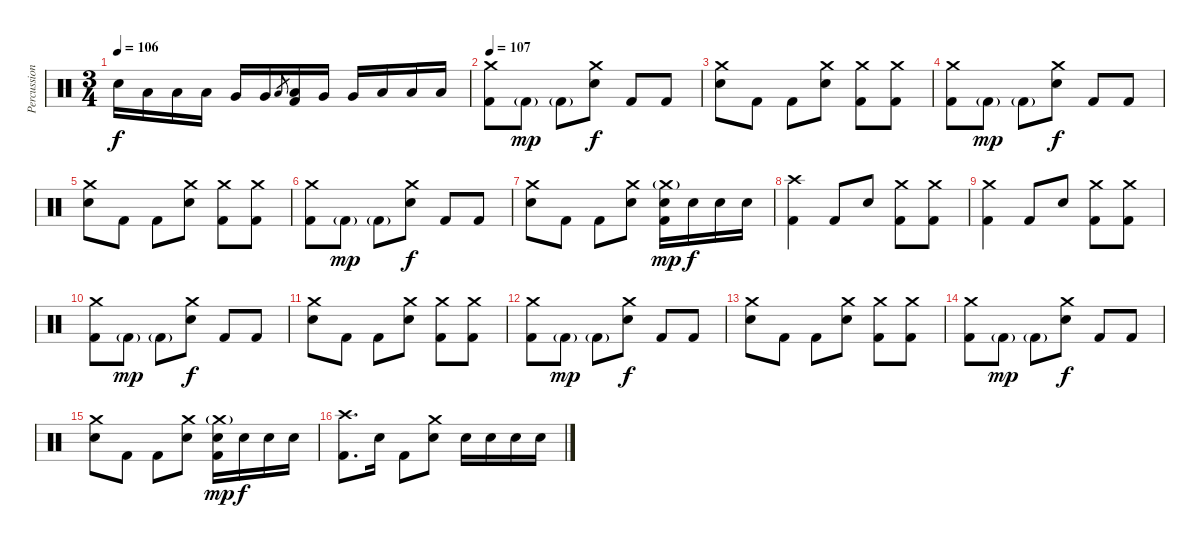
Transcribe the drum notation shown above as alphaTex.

\track ("Percussions" "Percussion") {instrument percussion}
\staff {score}
\articulation defaults
\ts (3 4)
\tempo 106
\clef neutral
\ks c "Snare (hit) 2".16{dy f} "Low Tom (hit)".16 "Low Tom (hit)".16 "Low Tom (hit)".16 "Very Low Tom (hit)".16 "Very Low Tom (hit)".16 "Low Tom (hit)".8{gr}
("Low Tom (hit)" "Kick (hit) 2").16 "Very Low Tom (hit)".16 "Very Low Tom (hit)".16 "Low Floor Tom (hit)".16 "Low Floor Tom (hit)".16 "Low Floor Tom (hit)".16 |
\tempo 107
("Crash medium (hit)" "Kick (hit) 2").8 "Kick (hit) 2"{g}.8{dy mp} "Kick (hit) 2"{g}.8 ("Crash medium (hit)" "Snare (hit) 2").8{dy f} "Kick (hit) 2".8 "Kick (hit) 2".8 |
("Crash medium (hit)" "Snare (hit) 2").8 "Kick (hit) 2".8 "Kick (hit) 2".8 ("Crash medium (hit)" "Snare (hit) 2").8 ("Crash medium (hit)" "Kick (hit) 2").8 ("Crash medium (hit)" "Kick (hit) 2").8 |
("Crash medium (hit)" "Kick (hit) 2").8 "Kick (hit) 2"{g}.8{dy mp} "Kick (hit) 2"{g}.8 ("Crash medium (hit)" "Snare (hit) 2").8{dy f} "Kick (hit) 2".8 "Kick (hit) 2".8 |
("Crash medium (hit)" "Snare (hit) 2").8 "Kick (hit) 2".8 "Kick (hit) 2".8 ("Crash medium (hit)" "Snare (hit) 2").8 ("Crash medium (hit)" "Kick (hit) 2").8 ("Crash medium (hit)" "Kick (hit) 2").8 |
("Crash medium (hit)" "Kick (hit) 2").8 "Kick (hit) 2"{g}.8{dy mp} "Kick (hit) 2"{g}.8 ("Crash medium (hit)" "Snare (hit) 2").8{dy f} "Kick (hit) 2".8 "Kick (hit) 2".8 |
("Crash medium (hit)" "Snare (hit) 2").8 "Kick (hit) 2".8 "Kick (hit) 2".8 ("Crash medium (hit)" "Snare (hit) 2").8 ("Crash medium (hit)"{g} "Snare (hit) 2" "Kick (hit) 2").16{dy mp} "Snare (hit) 2".16{dy f} "Snare (hit) 2".16 "Snare (hit) 2".16 |
("Crash high (hit)" "Kick (hit) 2").4 "Kick (hit) 2".8 "Snare (hit) 2".8 ("Crash medium (hit)" "Kick (hit) 2").8 ("Crash medium (hit)" "Kick (hit) 2").8 |
("Crash medium (hit)" "Kick (hit) 2").4 "Kick (hit) 2".8 "Snare (hit) 2".8 ("Crash medium (hit)" "Kick (hit) 2").8 ("Crash medium (hit)" "Kick (hit) 2").8 |
("Crash medium (hit)" "Kick (hit) 2").8 "Kick (hit) 2"{g}.8{dy mp} "Kick (hit) 2"{g}.8 ("Crash medium (hit)" "Snare (hit) 2").8{dy f} "Kick (hit) 2".8 "Kick (hit) 2".8 |
("Crash medium (hit)" "Snare (hit) 2").8 "Kick (hit) 2".8 "Kick (hit) 2".8 ("Crash medium (hit)" "Snare (hit) 2").8 ("Crash medium (hit)" "Kick (hit) 2").8 ("Crash medium (hit)" "Kick (hit) 2").8 |
("Crash medium (hit)" "Kick (hit) 2").8 "Kick (hit) 2"{g}.8{dy mp} "Kick (hit) 2"{g}.8 ("Crash medium (hit)" "Snare (hit) 2").8{dy f} "Kick (hit) 2".8 "Kick (hit) 2".8 |
("Crash medium (hit)" "Snare (hit) 2").8 "Kick (hit) 2".8 "Kick (hit) 2".8 ("Crash medium (hit)" "Snare (hit) 2").8 ("Crash medium (hit)" "Kick (hit) 2").8 ("Crash medium (hit)" "Kick (hit) 2").8 |
("Crash medium (hit)" "Kick (hit) 2").8 "Kick (hit) 2"{g}.8{dy mp} "Kick (hit) 2"{g}.8 ("Crash medium (hit)" "Snare (hit) 2").8{dy f} "Kick (hit) 2".8 "Kick (hit) 2".8 |
("Crash medium (hit)" "Snare (hit) 2").8 "Kick (hit) 2".8 "Kick (hit) 2".8 ("Crash medium (hit)" "Snare (hit) 2").8 ("Crash medium (hit)"{g} "Snare (hit) 2" "Kick (hit) 2").16{dy mp} "Snare (hit) 2".16{dy f} "Snare (hit) 2".16 "Snare (hit) 2".16 |
("Crash high (hit)" "Kick (hit) 2").8{d} "Snare (hit) 2".16 "Kick (hit) 2".8 ("Crash medium (hit)" "Snare (hit) 2").8 "Snare (hit) 2".16 "Snare (hit) 2".16 "Snare (hit) 2".16 "Snare (hit) 2".16
